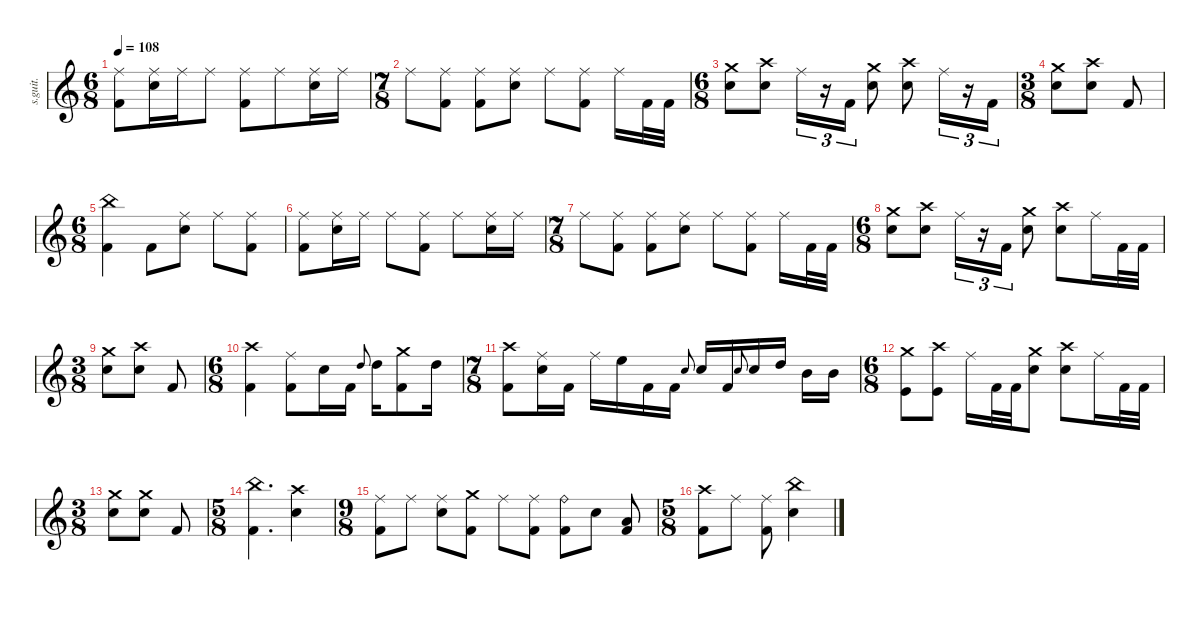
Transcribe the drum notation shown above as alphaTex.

\defaultSystemsLayout 4
\hideDynamics
\bracketExtendMode nobrackets
\track ("Danny Carey" "s.guit.") {instrument percussion}
\staff {score}
\articulation defaults
\ts (6 8)
\tempo 108
\clef g2
\ks c
("Ride (middle)" "Kick (hit) 2").8{lyrics (0 "") lyrics (1 "") lyrics (2 "") lyrics (3 "") lyrics (4 "") dy f} ("Ride (middle)" "Snare (hit) 2").16{lyrics (0 "") lyrics (1 "") lyrics (2 "") lyrics (3 "") lyrics (4 "")} "Ride (middle)".16{lyrics (0 "") lyrics (1 "") lyrics (2 "") lyrics (3 "") lyrics (4 "")} "Ride (middle)".8{lyrics (0 "") lyrics (1 "") lyrics (2 "") lyrics (3 "") lyrics (4 "")} ("Ride (middle)" "Kick (hit) 2").8{lyrics (0 "") lyrics (1 "") lyrics (2 "") lyrics (3 "") lyrics (4 "")} "Ride (middle)".8{lyrics (0 "") lyrics (1 "") lyrics (2 "") lyrics (3 "") lyrics (4 "")} ("Ride (middle)" "Snare (hit) 2").16{lyrics (0 "") lyrics (1 "") lyrics (2 "") lyrics (3 "") lyrics (4 "")} "Ride (middle)".16{lyrics (0 "") lyrics (1 "") lyrics (2 "") lyrics (3 "") lyrics (4 "")} |
\ts (7 8)
\beaming (8 2 2 2 2)
"Ride (middle)".8{lyrics (0 "") lyrics (1 "") lyrics (2 "") lyrics (3 "") lyrics (4 "")} ("Ride (middle)" "Kick (hit) 2").8{lyrics (0 "") lyrics (1 "") lyrics (2 "") lyrics (3 "") lyrics (4 "")} ("Ride (middle)" "Kick (hit) 2").8{lyrics (0 "") lyrics (1 "") lyrics (2 "") lyrics (3 "") lyrics (4 "")} ("Ride (middle)" "Snare (hit) 2").8{lyrics (0 "") lyrics (1 "") lyrics (2 "") lyrics (3 "") lyrics (4 "")} "Ride (middle)".8{lyrics (0 "") lyrics (1 "") lyrics (2 "") lyrics (3 "") lyrics (4 "")} ("Ride (middle)" "Kick (hit) 2").8{lyrics (0 "") lyrics (1 "") lyrics (2 "") lyrics (3 "") lyrics (4 "")} "Ride (middle)".16{lyrics (0 "") lyrics (1 "") lyrics (2 "") lyrics (3 "") lyrics (4 "")} "Kick (hit) 2".32{lyrics (0 "") lyrics (1 "") lyrics (2 "") lyrics (3 "") lyrics (4 "")} "Kick (hit) 2".32{lyrics (0 "") lyrics (1 "") lyrics (2 "") lyrics (3 "") lyrics (4 "")} |
\ts (6 8)
\beaming (8 2 2 2 2)
("Crash medium (hit)" "Snare (hit) 2").8{lyrics (0 "") lyrics (1 "") lyrics (2 "") lyrics (3 "") lyrics (4 "")} ("Crash high (hit)" "Snare (hit) 2").8{lyrics (0 "") lyrics (1 "") lyrics (2 "") lyrics (3 "") lyrics (4 "")} "Ride (middle)".16{tu (3 2) lyrics (0 "") lyrics (1 "") lyrics (2 "") lyrics (3 "") lyrics (4 "")} r.16{tu (3 2)} "Kick (hit) 2".16{tu (3 2) lyrics (0 "") lyrics (1 "") lyrics (2 "") lyrics (3 "") lyrics (4 "")} ("Crash medium (hit)" "Snare (hit) 2").8{lyrics (0 "") lyrics (1 "") lyrics (2 "") lyrics (3 "") lyrics (4 "")} ("Crash high (hit)" "Snare (hit) 2").8{lyrics (0 "") lyrics (1 "") lyrics (2 "") lyrics (3 "") lyrics (4 "")} "Ride (middle)".16{tu (3 2) lyrics (0 "") lyrics (1 "") lyrics (2 "") lyrics (3 "") lyrics (4 "")} r.16{tu (3 2)} "Kick (hit) 2".16{tu (3 2) lyrics (0 "") lyrics (1 "") lyrics (2 "") lyrics (3 "") lyrics (4 "")} |
\ts (3 8)
\beaming (8 2 2 2 2)
("Crash medium (hit)" "Snare (hit) 2").8{lyrics (0 "") lyrics (1 "") lyrics (2 "") lyrics (3 "") lyrics (4 "")} ("Crash high (hit)" "Snare (hit) 2").8{lyrics (0 "") lyrics (1 "") lyrics (2 "") lyrics (3 "") lyrics (4 "")} "Kick (hit) 2".8{lyrics (0 "") lyrics (1 "") lyrics (2 "") lyrics (3 "") lyrics (4 "")} |
\ts (6 8)
\beaming (8 2 2 2 2)
("Kick (hit) 2" "China (hit)").4{lyrics (0 "") lyrics (1 "") lyrics (2 "") lyrics (3 "") lyrics (4 "")} "Kick (hit) 2".8{lyrics (0 "") lyrics (1 "") lyrics (2 "") lyrics (3 "") lyrics (4 "")} ("Ride (middle)" "Snare (hit) 2").8{lyrics (0 "") lyrics (1 "") lyrics (2 "") lyrics (3 "") lyrics (4 "")} "Ride (middle)".8{lyrics (0 "") lyrics (1 "") lyrics (2 "") lyrics (3 "") lyrics (4 "")} ("Ride (middle)" "Kick (hit) 2").8{lyrics (0 "") lyrics (1 "") lyrics (2 "") lyrics (3 "") lyrics (4 "")} |
("Ride (middle)" "Kick (hit) 2").8{lyrics (0 "") lyrics (1 "") lyrics (2 "") lyrics (3 "") lyrics (4 "")} ("Ride (middle)" "Snare (hit) 2").16{lyrics (0 "") lyrics (1 "") lyrics (2 "") lyrics (3 "") lyrics (4 "")} "Ride (middle)".16{lyrics (0 "") lyrics (1 "") lyrics (2 "") lyrics (3 "") lyrics (4 "")} "Ride (middle)".8{lyrics (0 "") lyrics (1 "") lyrics (2 "") lyrics (3 "") lyrics (4 "")} ("Ride (middle)" "Kick (hit) 2").8{lyrics (0 "") lyrics (1 "") lyrics (2 "") lyrics (3 "") lyrics (4 "")} "Ride (middle)".8{lyrics (0 "") lyrics (1 "") lyrics (2 "") lyrics (3 "") lyrics (4 "")} ("Ride (middle)" "Snare (hit) 2").16{lyrics (0 "") lyrics (1 "") lyrics (2 "") lyrics (3 "") lyrics (4 "")} "Ride (middle)".16{lyrics (0 "") lyrics (1 "") lyrics (2 "") lyrics (3 "") lyrics (4 "")} |
\ts (7 8)
\beaming (8 2 2 2 2)
"Ride (middle)".8{lyrics (0 "") lyrics (1 "") lyrics (2 "") lyrics (3 "") lyrics (4 "")} ("Ride (middle)" "Kick (hit) 2").8{lyrics (0 "") lyrics (1 "") lyrics (2 "") lyrics (3 "") lyrics (4 "")} ("Ride (middle)" "Kick (hit) 2").8{lyrics (0 "") lyrics (1 "") lyrics (2 "") lyrics (3 "") lyrics (4 "")} ("Ride (middle)" "Snare (hit) 2").8{lyrics (0 "") lyrics (1 "") lyrics (2 "") lyrics (3 "") lyrics (4 "")} "Ride (middle)".8{lyrics (0 "") lyrics (1 "") lyrics (2 "") lyrics (3 "") lyrics (4 "")} ("Ride (middle)" "Kick (hit) 2").8{lyrics (0 "") lyrics (1 "") lyrics (2 "") lyrics (3 "") lyrics (4 "")} "Ride (middle)".16{lyrics (0 "") lyrics (1 "") lyrics (2 "") lyrics (3 "") lyrics (4 "")} "Kick (hit) 2".32{lyrics (0 "") lyrics (1 "") lyrics (2 "") lyrics (3 "") lyrics (4 "")} "Kick (hit) 2".32{lyrics (0 "") lyrics (1 "") lyrics (2 "") lyrics (3 "") lyrics (4 "")} |
\ts (6 8)
\beaming (8 2 2 2 2)
("Crash medium (hit)" "Snare (hit) 2").8{lyrics (0 "") lyrics (1 "") lyrics (2 "") lyrics (3 "") lyrics (4 "")} ("Crash high (hit)" "Snare (hit) 2").8{lyrics (0 "") lyrics (1 "") lyrics (2 "") lyrics (3 "") lyrics (4 "")} "Ride (middle)".16{tu (3 2) lyrics (0 "") lyrics (1 "") lyrics (2 "") lyrics (3 "") lyrics (4 "")} r.16{tu (3 2)} "Kick (hit) 2".16{tu (3 2) lyrics (0 "") lyrics (1 "") lyrics (2 "") lyrics (3 "") lyrics (4 "")} ("Crash medium (hit)" "Snare (hit) 2").8{lyrics (0 "") lyrics (1 "") lyrics (2 "") lyrics (3 "") lyrics (4 "")} ("Crash high (hit)" "Snare (hit) 2").8{lyrics (0 "") lyrics (1 "") lyrics (2 "") lyrics (3 "") lyrics (4 "")} "Ride (middle)".16{lyrics (0 "") lyrics (1 "") lyrics (2 "") lyrics (3 "") lyrics (4 "")} "Kick (hit) 2".32{lyrics (0 "") lyrics (1 "") lyrics (2 "") lyrics (3 "") lyrics (4 "")} "Kick (hit) 2".32{lyrics (0 "") lyrics (1 "") lyrics (2 "") lyrics (3 "") lyrics (4 "")} |
\ts (3 8)
\beaming (8 2 2 2 2)
("Crash medium (hit)" "Snare (hit) 2").8{lyrics (0 "") lyrics (1 "") lyrics (2 "") lyrics (3 "") lyrics (4 "")} ("Crash high (hit)" "Snare (hit) 2").8{lyrics (0 "") lyrics (1 "") lyrics (2 "") lyrics (3 "") lyrics (4 "")} "Kick (hit) 2".8{lyrics (0 "") lyrics (1 "") lyrics (2 "") lyrics (3 "") lyrics (4 "")} |
\ts (6 8)
\beaming (8 2 2 2 2)
("Crash high (hit)" "Kick (hit) 2").4{lyrics (0 "") lyrics (1 "") lyrics (2 "") lyrics (3 "") lyrics (4 "")} ("Kick (hit) 2" "Ride (middle)").8{lyrics (0 "") lyrics (1 "") lyrics (2 "") lyrics (3 "") lyrics (4 "")} "Snare (hit) 2".16{lyrics (0 "") lyrics (1 "") lyrics (2 "") lyrics (3 "") lyrics (4 "")} "Kick (hit) 2".16{lyrics (0 "") lyrics (1 "") lyrics (2 "") lyrics (3 "") lyrics (4 "")} "High Tom (hit)".8{lyrics (0 "") lyrics (1 "") lyrics (2 "") lyrics (3 "") lyrics (4 "") gr onbeat} "High Tom (hit)".16{lyrics (0 "") lyrics (1 "") lyrics (2 "") lyrics (3 "") lyrics (4 "")} ("Crash medium (hit)" "Kick (hit) 2").8{lyrics (0 "") lyrics (1 "") lyrics (2 "") lyrics (3 "") lyrics (4 "")} "High Tom (hit)".16{lyrics (0 "") lyrics (1 "") lyrics (2 "") lyrics (3 "") lyrics (4 "")} |
\ts (7 8)
\beaming (8 2 2 2 2)
("Kick (hit) 2" "Crash high (hit)").8{lyrics (0 "") lyrics (1 "") lyrics (2 "") lyrics (3 "") lyrics (4 "")} ("Snare (hit) 2" "Ride (middle)").16{lyrics (0 "") lyrics (1 "") lyrics (2 "") lyrics (3 "") lyrics (4 "")} "Kick (hit) 2".16{lyrics (0 "") lyrics (1 "") lyrics (2 "") lyrics (3 "") lyrics (4 "")} "Ride (middle)".16{lyrics (0 "") lyrics (1 "") lyrics (2 "") lyrics (3 "") lyrics (4 "")} "High Floor Tom (hit)".16{lyrics (0 "") lyrics (1 "") lyrics (2 "") lyrics (3 "") lyrics (4 "")} "Kick (hit) 2".16{lyrics (0 "") lyrics (1 "") lyrics (2 "") lyrics (3 "") lyrics (4 "")} "Kick (hit) 2".16{lyrics (0 "") lyrics (1 "") lyrics (2 "") lyrics (3 "") lyrics (4 "")} "Snare (hit) 2".8{lyrics (0 "") lyrics (1 "") lyrics (2 "") lyrics (3 "") lyrics (4 "") gr onbeat} "Snare (hit) 2".16{lyrics (0 "") lyrics (1 "") lyrics (2 "") lyrics (3 "") lyrics (4 "")} "Kick (hit) 2".16{lyrics (0 "") lyrics (1 "") lyrics (2 "") lyrics (3 "") lyrics (4 "")} "Snare (hit) 2".8{lyrics (0 "") lyrics (1 "") lyrics (2 "") lyrics (3 "") lyrics (4 "") gr onbeat} "Snare (hit) 2".16{lyrics (0 "") lyrics (1 "") lyrics (2 "") lyrics (3 "") lyrics (4 "")} "High Tom (hit)".16{lyrics (0 "") lyrics (1 "") lyrics (2 "") lyrics (3 "") lyrics (4 "")} "Mid Tom (hit)".16{lyrics (0 "") lyrics (1 "") lyrics (2 "") lyrics (3 "") lyrics (4 "")} "Mid Tom (hit)".16{lyrics (0 "") lyrics (1 "") lyrics (2 "") lyrics (3 "") lyrics (4 "")} |
\ts (6 8)
\beaming (8 2 2 2 2)
("Crash medium (hit)" "Kick (hit)").8{lyrics (0 "") lyrics (1 "") lyrics (2 "") lyrics (3 "") lyrics (4 "")} ("Crash high (hit)" "Kick (hit)").8{lyrics (0 "") lyrics (1 "") lyrics (2 "") lyrics (3 "") lyrics (4 "")} "Ride (middle)".16{lyrics (0 "") lyrics (1 "") lyrics (2 "") lyrics (3 "") lyrics (4 "")} "Kick (hit) 2".32{lyrics (0 "") lyrics (1 "") lyrics (2 "") lyrics (3 "") lyrics (4 "")} "Kick (hit) 2".32{lyrics (0 "") lyrics (1 "") lyrics (2 "") lyrics (3 "") lyrics (4 "")} ("Crash medium (hit)" "Snare (hit) 2").8{lyrics (0 "") lyrics (1 "") lyrics (2 "") lyrics (3 "") lyrics (4 "")} ("Crash high (hit)" "Snare (hit) 2").8{lyrics (0 "") lyrics (1 "") lyrics (2 "") lyrics (3 "") lyrics (4 "")} "Ride (middle)".16{lyrics (0 "") lyrics (1 "") lyrics (2 "") lyrics (3 "") lyrics (4 "")} "Kick (hit) 2".32{lyrics (0 "") lyrics (1 "") lyrics (2 "") lyrics (3 "") lyrics (4 "")} "Kick (hit) 2".32{lyrics (0 "") lyrics (1 "") lyrics (2 "") lyrics (3 "") lyrics (4 "")} |
\ts (3 8)
\beaming (8 2 2 2 2)
("Crash medium (hit)" "Snare (hit) 2").8{lyrics (0 "") lyrics (1 "") lyrics (2 "") lyrics (3 "") lyrics (4 "")} ("Snare (hit) 2" "Crash medium (hit)").8{lyrics (0 "") lyrics (1 "") lyrics (2 "") lyrics (3 "") lyrics (4 "")} "Kick (hit) 2".8{lyrics (0 "") lyrics (1 "") lyrics (2 "") lyrics (3 "") lyrics (4 "")} |
\ts (5 8)
\beaming (8 2 2 2 2)
("Kick (hit) 2" "China (hit)").4{d lyrics (0 "") lyrics (1 "") lyrics (2 "") lyrics (3 "") lyrics (4 "")} ("Crash high (hit)" "Snare (hit) 2").4{lyrics (0 "") lyrics (1 "") lyrics (2 "") lyrics (3 "") lyrics (4 "")} |
\ts (9 8)
\beaming (8 2 2 2 2)
("Ride (middle)" "Kick (hit) 2").8{lyrics (0 "") lyrics (1 "") lyrics (2 "") lyrics (3 "") lyrics (4 "")} "Ride (middle)".8{lyrics (0 "") lyrics (1 "") lyrics (2 "") lyrics (3 "") lyrics (4 "")} ("Ride (middle)" "Snare (hit) 2").8{lyrics (0 "") lyrics (1 "") lyrics (2 "") lyrics (3 "") lyrics (4 "")} ("Crash medium (hit)" "Kick (hit) 2").8{lyrics (0 "") lyrics (1 "") lyrics (2 "") lyrics (3 "") lyrics (4 "")} "Ride (middle)".8{lyrics (0 "") lyrics (1 "") lyrics (2 "") lyrics (3 "") lyrics (4 "")} ("Ride (middle)" "Kick (hit) 2").8{lyrics (0 "") lyrics (1 "") lyrics (2 "") lyrics (3 "") lyrics (4 "")} ("Ride (bell)" "Kick (hit) 2").8{lyrics (0 "") lyrics (1 "") lyrics (2 "") lyrics (3 "") lyrics (4 "")} "Snare (hit) 2".8{lyrics (0 "") lyrics (1 "") lyrics (2 "") lyrics (3 "") lyrics (4 "")} ("Kick (hit) 2" "Low Floor Tom (hit)").8{lyrics (0 "") lyrics (1 "") lyrics (2 "") lyrics (3 "") lyrics (4 "")} |
\ts (5 8)
\beaming (8 2 2 2 2)
("Crash high (hit)" "Kick (hit) 2").8{lyrics (0 "") lyrics (1 "") lyrics (2 "") lyrics (3 "") lyrics (4 "")} "Ride (middle)".8{lyrics (0 "") lyrics (1 "") lyrics (2 "") lyrics (3 "") lyrics (4 "")} ("Ride (middle)" "Kick (hit) 2").8{lyrics (0 "") lyrics (1 "") lyrics (2 "") lyrics (3 "") lyrics (4 "")} ("Snare (hit) 2" "China (hit)").4{lyrics (0 "") lyrics (1 "") lyrics (2 "") lyrics (3 "") lyrics (4 "")}
